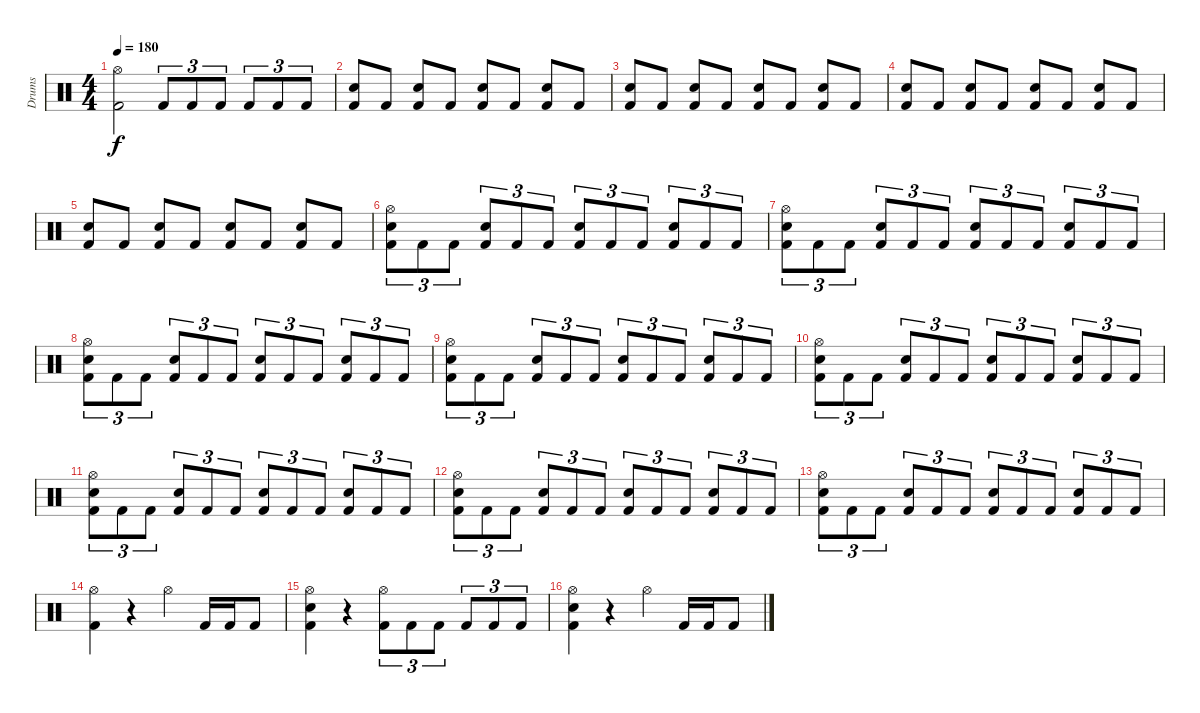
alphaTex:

\track ("Drums" "Drums") {instrument percussion}
\staff {score}
\articulation defaults
\ts (4 4)
\tempo 180
\clef neutral
\ks c
("Hi-Hat (open)" "Kick (hit) 2").2{dy f} "Kick (hit) 2".8{tu (3 2)} "Kick (hit) 2".8{tu (3 2)} "Kick (hit) 2".8{tu (3 2)} "Kick (hit) 2".8{tu (3 2)} "Kick (hit) 2".8{tu (3 2)} "Kick (hit) 2".8{tu (3 2)} |
("Snare (hit) 2" "Kick (hit) 2").8 "Kick (hit) 2".8 ("Snare (hit) 2" "Kick (hit) 2").8 "Kick (hit) 2".8 ("Snare (hit) 2" "Kick (hit) 2").8 "Kick (hit) 2".8 ("Snare (hit) 2" "Kick (hit) 2").8 "Kick (hit) 2".8 |
("Snare (hit) 2" "Kick (hit) 2").8 "Kick (hit) 2".8 ("Snare (hit) 2" "Kick (hit) 2").8 "Kick (hit) 2".8 ("Snare (hit) 2" "Kick (hit) 2").8 "Kick (hit) 2".8 ("Snare (hit) 2" "Kick (hit) 2").8 "Kick (hit) 2".8 |
("Snare (hit) 2" "Kick (hit) 2").8 "Kick (hit) 2".8 ("Snare (hit) 2" "Kick (hit) 2").8 "Kick (hit) 2".8 ("Snare (hit) 2" "Kick (hit) 2").8 "Kick (hit) 2".8 ("Snare (hit) 2" "Kick (hit) 2").8 "Kick (hit) 2".8 |
("Snare (hit) 2" "Kick (hit) 2").8 "Kick (hit) 2".8 ("Snare (hit) 2" "Kick (hit) 2").8 "Kick (hit) 2".8 ("Snare (hit) 2" "Kick (hit) 2").8 "Kick (hit) 2".8 ("Snare (hit) 2" "Kick (hit) 2").8 "Kick (hit) 2".8 |
("Hi-Hat (open)" "Snare (hit) 2" "Kick (hit) 2").8{tu (3 2)} "Kick (hit) 2".8{tu (3 2)} "Kick (hit) 2".8{tu (3 2)} ("Snare (hit) 2" "Kick (hit) 2").8{tu (3 2)} "Kick (hit) 2".8{tu (3 2)} "Kick (hit) 2".8{tu (3 2)} ("Snare (hit) 2" "Kick (hit) 2").8{tu (3 2)} "Kick (hit) 2".8{tu (3 2)} "Kick (hit) 2".8{tu (3 2)} ("Snare (hit) 2" "Kick (hit) 2").8{tu (3 2)} "Kick (hit) 2".8{tu (3 2)} "Kick (hit) 2".8{tu (3 2)} |
("Hi-Hat (open)" "Snare (hit) 2" "Kick (hit) 2").8{tu (3 2)} "Kick (hit) 2".8{tu (3 2)} "Kick (hit) 2".8{tu (3 2)} ("Snare (hit) 2" "Kick (hit) 2").8{tu (3 2)} "Kick (hit) 2".8{tu (3 2)} "Kick (hit) 2".8{tu (3 2)} ("Snare (hit) 2" "Kick (hit) 2").8{tu (3 2)} "Kick (hit) 2".8{tu (3 2)} "Kick (hit) 2".8{tu (3 2)} ("Snare (hit) 2" "Kick (hit) 2").8{tu (3 2)} "Kick (hit) 2".8{tu (3 2)} "Kick (hit) 2".8{tu (3 2)} |
("Hi-Hat (open)" "Snare (hit) 2" "Kick (hit) 2").8{tu (3 2)} "Kick (hit) 2".8{tu (3 2)} "Kick (hit) 2".8{tu (3 2)} ("Snare (hit) 2" "Kick (hit) 2").8{tu (3 2)} "Kick (hit) 2".8{tu (3 2)} "Kick (hit) 2".8{tu (3 2)} ("Snare (hit) 2" "Kick (hit) 2").8{tu (3 2)} "Kick (hit) 2".8{tu (3 2)} "Kick (hit) 2".8{tu (3 2)} ("Snare (hit) 2" "Kick (hit) 2").8{tu (3 2)} "Kick (hit) 2".8{tu (3 2)} "Kick (hit) 2".8{tu (3 2)} |
("Hi-Hat (open)" "Snare (hit) 2" "Kick (hit) 2").8{tu (3 2)} "Kick (hit) 2".8{tu (3 2)} "Kick (hit) 2".8{tu (3 2)} ("Snare (hit) 2" "Kick (hit) 2").8{tu (3 2)} "Kick (hit) 2".8{tu (3 2)} "Kick (hit) 2".8{tu (3 2)} ("Snare (hit) 2" "Kick (hit) 2").8{tu (3 2)} "Kick (hit) 2".8{tu (3 2)} "Kick (hit) 2".8{tu (3 2)} ("Snare (hit) 2" "Kick (hit) 2").8{tu (3 2)} "Kick (hit) 2".8{tu (3 2)} "Kick (hit) 2".8{tu (3 2)} |
("Hi-Hat (open)" "Snare (hit) 2" "Kick (hit) 2").8{tu (3 2)} "Kick (hit) 2".8{tu (3 2)} "Kick (hit) 2".8{tu (3 2)} ("Snare (hit) 2" "Kick (hit) 2").8{tu (3 2)} "Kick (hit) 2".8{tu (3 2)} "Kick (hit) 2".8{tu (3 2)} ("Snare (hit) 2" "Kick (hit) 2").8{tu (3 2)} "Kick (hit) 2".8{tu (3 2)} "Kick (hit) 2".8{tu (3 2)} ("Snare (hit) 2" "Kick (hit) 2").8{tu (3 2)} "Kick (hit) 2".8{tu (3 2)} "Kick (hit) 2".8{tu (3 2)} |
("Hi-Hat (open)" "Snare (hit) 2" "Kick (hit) 2").8{tu (3 2)} "Kick (hit) 2".8{tu (3 2)} "Kick (hit) 2".8{tu (3 2)} ("Snare (hit) 2" "Kick (hit) 2").8{tu (3 2)} "Kick (hit) 2".8{tu (3 2)} "Kick (hit) 2".8{tu (3 2)} ("Snare (hit) 2" "Kick (hit) 2").8{tu (3 2)} "Kick (hit) 2".8{tu (3 2)} "Kick (hit) 2".8{tu (3 2)} ("Snare (hit) 2" "Kick (hit) 2").8{tu (3 2)} "Kick (hit) 2".8{tu (3 2)} "Kick (hit) 2".8{tu (3 2)} |
("Hi-Hat (open)" "Snare (hit) 2" "Kick (hit) 2").8{tu (3 2)} "Kick (hit) 2".8{tu (3 2)} "Kick (hit) 2".8{tu (3 2)} ("Snare (hit) 2" "Kick (hit) 2").8{tu (3 2)} "Kick (hit) 2".8{tu (3 2)} "Kick (hit) 2".8{tu (3 2)} ("Snare (hit) 2" "Kick (hit) 2").8{tu (3 2)} "Kick (hit) 2".8{tu (3 2)} "Kick (hit) 2".8{tu (3 2)} ("Snare (hit) 2" "Kick (hit) 2").8{tu (3 2)} "Kick (hit) 2".8{tu (3 2)} "Kick (hit) 2".8{tu (3 2)} |
("Hi-Hat (open)" "Snare (hit) 2" "Kick (hit) 2").8{tu (3 2)} "Kick (hit) 2".8{tu (3 2)} "Kick (hit) 2".8{tu (3 2)} ("Snare (hit) 2" "Kick (hit) 2").8{tu (3 2)} "Kick (hit) 2".8{tu (3 2)} "Kick (hit) 2".8{tu (3 2)} ("Snare (hit) 2" "Kick (hit) 2").8{tu (3 2)} "Kick (hit) 2".8{tu (3 2)} "Kick (hit) 2".8{tu (3 2)} ("Snare (hit) 2" "Kick (hit) 2").8{tu (3 2)} "Kick (hit) 2".8{tu (3 2)} "Kick (hit) 2".8{tu (3 2)} |
("Hi-Hat (open)" "Kick (hit) 2").4 r.4 "Hi-Hat (open)".4 "Kick (hit) 2".16 "Kick (hit) 2".16 "Kick (hit) 2".8 |
("Hi-Hat (open)" "Snare (hit) 2" "Kick (hit) 2").4 r.4 ("Hi-Hat (open)" "Kick (hit) 2").8{tu (3 2)} "Kick (hit) 2".8{tu (3 2)} "Kick (hit) 2".8{tu (3 2)} "Kick (hit) 2".8{tu (3 2)} "Kick (hit) 2".8{tu (3 2)} "Kick (hit) 2".8{tu (3 2)} |
("Hi-Hat (open)" "Snare (hit) 2" "Kick (hit) 2").4 r.4 "Hi-Hat (open)".4 "Kick (hit) 2".16 "Kick (hit) 2".16 "Kick (hit) 2".8
